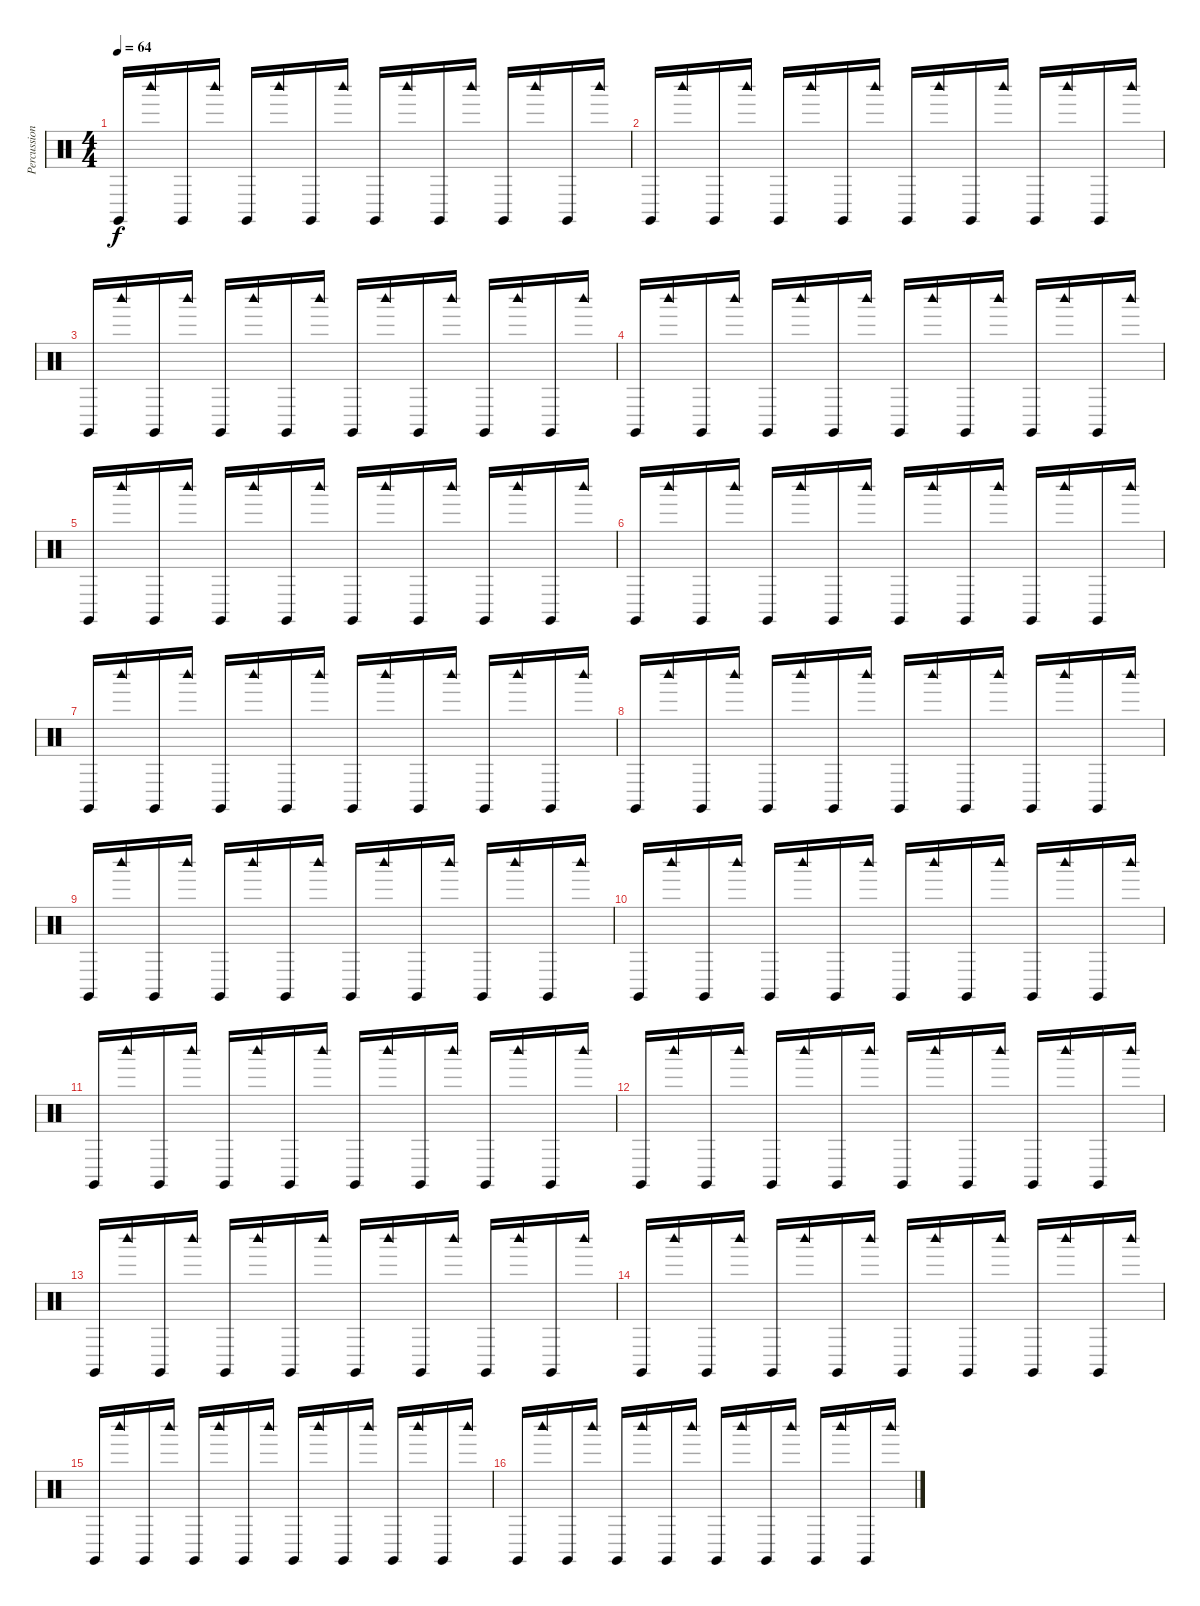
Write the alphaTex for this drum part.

\track ("Percussions" "Percussion") {instrument percussion}
\staff {score}
\articulation defaults
\ts (4 4)
\tempo 64
\clef neutral
\ks c "Claves (hit)".16{dy f} "Woodblock high (hit)".16 "Claves (hit)".16 "Woodblock high (hit)".16 "Claves (hit)".16 "Woodblock high (hit)".16 "Claves (hit)".16 "Woodblock high (hit)".16 "Claves (hit)".16 "Woodblock high (hit)".16 "Claves (hit)".16 "Woodblock high (hit)".16 "Claves (hit)".16 "Woodblock high (hit)".16 "Claves (hit)".16 "Woodblock high (hit)".16
|
"Claves (hit)".16 "Woodblock high (hit)".16 "Claves (hit)".16 "Woodblock high (hit)".16 "Claves (hit)".16 "Woodblock high (hit)".16 "Claves (hit)".16 "Woodblock high (hit)".16 "Claves (hit)".16 "Woodblock high (hit)".16 "Claves (hit)".16 "Woodblock high (hit)".16 "Claves (hit)".16 "Woodblock high (hit)".16 "Claves (hit)".16 "Woodblock high (hit)".16 |
"Claves (hit)".16 "Woodblock high (hit)".16 "Claves (hit)".16 "Woodblock high (hit)".16 "Claves (hit)".16 "Woodblock high (hit)".16 "Claves (hit)".16 "Woodblock high (hit)".16 "Claves (hit)".16 "Woodblock high (hit)".16 "Claves (hit)".16 "Woodblock high (hit)".16 "Claves (hit)".16 "Woodblock high (hit)".16 "Claves (hit)".16 "Woodblock high (hit)".16 |
"Claves (hit)".16 "Woodblock high (hit)".16 "Claves (hit)".16 "Woodblock high (hit)".16 "Claves (hit)".16 "Woodblock high (hit)".16 "Claves (hit)".16 "Woodblock high (hit)".16 "Claves (hit)".16 "Woodblock high (hit)".16 "Claves (hit)".16 "Woodblock high (hit)".16 "Claves (hit)".16 "Woodblock high (hit)".16 "Claves (hit)".16 "Woodblock high (hit)".16 |
"Claves (hit)".16 "Woodblock high (hit)".16 "Claves (hit)".16 "Woodblock high (hit)".16 "Claves (hit)".16 "Woodblock high (hit)".16 "Claves (hit)".16 "Woodblock high (hit)".16 "Claves (hit)".16 "Woodblock high (hit)".16 "Claves (hit)".16 "Woodblock high (hit)".16 "Claves (hit)".16 "Woodblock high (hit)".16 "Claves (hit)".16 "Woodblock high (hit)".16 |
"Claves (hit)".16 "Woodblock high (hit)".16 "Claves (hit)".16 "Woodblock high (hit)".16 "Claves (hit)".16 "Woodblock high (hit)".16 "Claves (hit)".16 "Woodblock high (hit)".16 "Claves (hit)".16 "Woodblock high (hit)".16 "Claves (hit)".16 "Woodblock high (hit)".16 "Claves (hit)".16 "Woodblock high (hit)".16 "Claves (hit)".16 "Woodblock high (hit)".16 |
"Claves (hit)".16 "Woodblock high (hit)".16 "Claves (hit)".16 "Woodblock high (hit)".16 "Claves (hit)".16 "Woodblock high (hit)".16 "Claves (hit)".16 "Woodblock high (hit)".16 "Claves (hit)".16 "Woodblock high (hit)".16 "Claves (hit)".16 "Woodblock high (hit)".16 "Claves (hit)".16 "Woodblock high (hit)".16 "Claves (hit)".16 "Woodblock high (hit)".16 |
"Claves (hit)".16 "Woodblock high (hit)".16 "Claves (hit)".16 "Woodblock high (hit)".16 "Claves (hit)".16 "Woodblock high (hit)".16 "Claves (hit)".16 "Woodblock high (hit)".16 "Claves (hit)".16 "Woodblock high (hit)".16 "Claves (hit)".16 "Woodblock high (hit)".16 "Claves (hit)".16 "Woodblock high (hit)".16 "Claves (hit)".16 "Woodblock high (hit)".16 |
"Claves (hit)".16 "Woodblock high (hit)".16 "Claves (hit)".16 "Woodblock high (hit)".16 "Claves (hit)".16 "Woodblock high (hit)".16 "Claves (hit)".16 "Woodblock high (hit)".16 "Claves (hit)".16 "Woodblock high (hit)".16 "Claves (hit)".16 "Woodblock high (hit)".16 "Claves (hit)".16 "Woodblock high (hit)".16 "Claves (hit)".16 "Woodblock high (hit)".16 |
"Claves (hit)".16 "Woodblock high (hit)".16 "Claves (hit)".16 "Woodblock high (hit)".16 "Claves (hit)".16 "Woodblock high (hit)".16 "Claves (hit)".16 "Woodblock high (hit)".16 "Claves (hit)".16 "Woodblock high (hit)".16 "Claves (hit)".16 "Woodblock high (hit)".16 "Claves (hit)".16 "Woodblock high (hit)".16 "Claves (hit)".16 "Woodblock high (hit)".16 |
"Claves (hit)".16 "Woodblock high (hit)".16 "Claves (hit)".16 "Woodblock high (hit)".16 "Claves (hit)".16 "Woodblock high (hit)".16 "Claves (hit)".16 "Woodblock high (hit)".16 "Claves (hit)".16 "Woodblock high (hit)".16 "Claves (hit)".16 "Woodblock high (hit)".16 "Claves (hit)".16 "Woodblock high (hit)".16 "Claves (hit)".16 "Woodblock high (hit)".16 |
"Claves (hit)".16 "Woodblock high (hit)".16 "Claves (hit)".16 "Woodblock high (hit)".16 "Claves (hit)".16 "Woodblock high (hit)".16 "Claves (hit)".16 "Woodblock high (hit)".16 "Claves (hit)".16 "Woodblock high (hit)".16 "Claves (hit)".16 "Woodblock high (hit)".16 "Claves (hit)".16 "Woodblock high (hit)".16 "Claves (hit)".16 "Woodblock high (hit)".16 |
"Claves (hit)".16 "Woodblock high (hit)".16 "Claves (hit)".16 "Woodblock high (hit)".16 "Claves (hit)".16 "Woodblock high (hit)".16 "Claves (hit)".16 "Woodblock high (hit)".16 "Claves (hit)".16 "Woodblock high (hit)".16 "Claves (hit)".16 "Woodblock high (hit)".16 "Claves (hit)".16 "Woodblock high (hit)".16 "Claves (hit)".16 "Woodblock high (hit)".16 |
"Claves (hit)".16 "Woodblock high (hit)".16 "Claves (hit)".16 "Woodblock high (hit)".16 "Claves (hit)".16 "Woodblock high (hit)".16 "Claves (hit)".16 "Woodblock high (hit)".16 "Claves (hit)".16 "Woodblock high (hit)".16 "Claves (hit)".16 "Woodblock high (hit)".16 "Claves (hit)".16 "Woodblock high (hit)".16 "Claves (hit)".16 "Woodblock high (hit)".16 |
"Claves (hit)".16 "Woodblock high (hit)".16 "Claves (hit)".16 "Woodblock high (hit)".16 "Claves (hit)".16 "Woodblock high (hit)".16 "Claves (hit)".16 "Woodblock high (hit)".16 "Claves (hit)".16 "Woodblock high (hit)".16 "Claves (hit)".16 "Woodblock high (hit)".16 "Claves (hit)".16 "Woodblock high (hit)".16 "Claves (hit)".16 "Woodblock high (hit)".16 |
"Claves (hit)".16 "Woodblock high (hit)".16 "Claves (hit)".16 "Woodblock high (hit)".16 "Claves (hit)".16 "Woodblock high (hit)".16 "Claves (hit)".16 "Woodblock high (hit)".16 "Claves (hit)".16 "Woodblock high (hit)".16 "Claves (hit)".16 "Woodblock high (hit)".16 "Claves (hit)".16 "Woodblock high (hit)".16 "Claves (hit)".16 "Woodblock high (hit)".16
